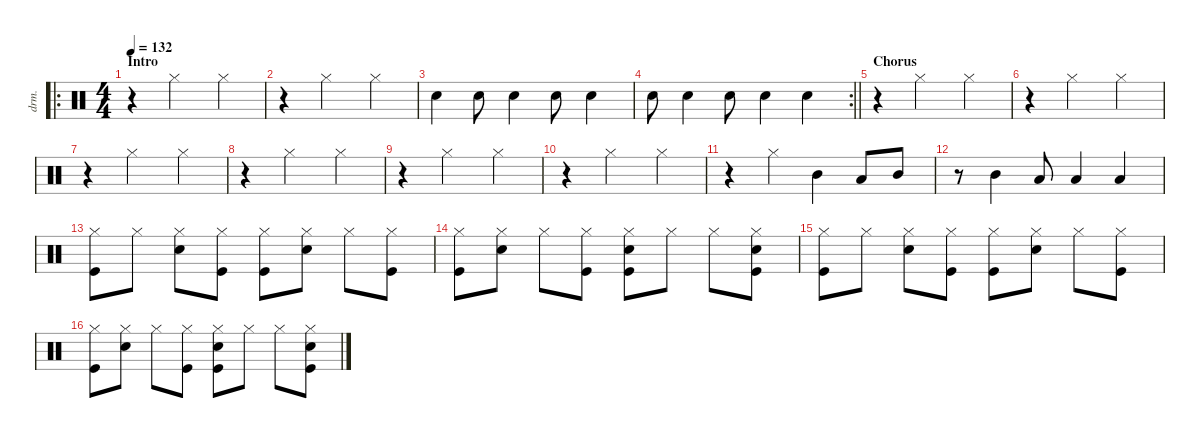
\defaultSystemsLayout 4
\hideDynamics
\bracketExtendMode nobrackets
\otherSystemsTrackNameOrientation horizontal
\track ("Drums" "drm.") {instrument percussion}
\staff {score}
\articulation defaults
\ro
\ts (4 4)
\beaming (8 2 2 2 2)
\section ("" "Intro")
\tempo 132
\clef neutral
\ks c
r.4{dy fff beam Down} "Hi-Hat (closed)".2{beam Down} "Hi-Hat (closed)".4{beam Down} |
r.4{beam Down} "Hi-Hat (closed)".2{beam Down} "Hi-Hat (closed)".4{beam Down} |
"Snare (hit) 2".4{dy mp beam Down} "Snare (hit) 2".8{beam Down} "Snare (hit) 2".4{beam Down} "Snare (hit) 2".8{beam Down} "Snare (hit) 2".4{beam Down} |
\rc 2
\barLineRight lightlight "Snare (hit) 2".8{beam Down} "Snare (hit) 2".4{beam Down} "Snare (hit) 2".8{beam Down} "Snare (hit) 2".4{beam Down} "Snare (hit) 2".4{beam Down}
|
\section ("" "Chorus")
r.4{beam Down} "Hi-Hat (closed)".2{dy fff beam Down} "Hi-Hat (closed)".4{beam Down} |
r.4{beam Down} "Hi-Hat (closed)".2{beam Down} "Hi-Hat (closed)".4{beam Down} |
r.4{beam Down} "Hi-Hat (closed)".2{beam Down} "Hi-Hat (closed)".4{beam Down} |
r.4{beam Down} "Hi-Hat (closed)".2{beam Down} "Hi-Hat (closed)".4{beam Down} |
r.4{beam Down} "Hi-Hat (closed)".2{beam Down} "Hi-Hat (closed)".4{beam Down} |
r.4{beam Down} "Hi-Hat (closed)".2{beam Down} "Hi-Hat (closed)".4{beam Down} |
r.4{beam Down} "Hi-Hat (closed)".4{beam Down} "Mid Tom (hit)".4{dy f beam Down} "Low Tom (hit)".8{beam Up} "Mid Tom (hit)".8{beam Up} |
r.8{beam Down} "Mid Tom (hit)".4{beam Down} "Low Tom (hit)".8{beam Up} "Low Tom (hit)".4{beam Up} "Low Tom (hit)".4{beam Up} |
("Hi-Hat (closed)" "Kick (hit)").8{beam Down} "Hi-Hat (closed)".8{beam Down} ("Hi-Hat (closed)" "Snare (hit) 2").8{beam Down} ("Hi-Hat (closed)" "Kick (hit)").8{beam Down} ("Hi-Hat (closed)" "Kick (hit)").8{beam Down} ("Hi-Hat (closed)" "Snare (hit) 2").8{beam Down} "Hi-Hat (closed)".8{beam Down} ("Hi-Hat (closed)" "Kick (hit)").8{beam Down} |
("Hi-Hat (closed)" "Kick (hit)").8{beam Down} ("Hi-Hat (closed)" "Snare (hit) 2").8{beam Down} "Hi-Hat (closed)".8{beam Down} ("Hi-Hat (closed)" "Kick (hit)").8{beam Down} ("Hi-Hat (closed)" "Snare (hit) 2" "Kick (hit)").8{beam Down} "Hi-Hat (closed)".8{beam Down} "Hi-Hat (closed)".8{beam Down} ("Hi-Hat (closed)" "Snare (hit) 2" "Kick (hit)").8{beam Down} |
("Hi-Hat (closed)" "Kick (hit)").8{beam Down} "Hi-Hat (closed)".8{beam Down} ("Hi-Hat (closed)" "Snare (hit) 2").8{beam Down} ("Hi-Hat (closed)" "Kick (hit)").8{beam Down} ("Hi-Hat (closed)" "Kick (hit)").8{beam Down} ("Hi-Hat (closed)" "Snare (hit) 2").8{beam Down} "Hi-Hat (closed)".8{beam Down} ("Hi-Hat (closed)" "Kick (hit)").8{beam Down} |
("Hi-Hat (closed)" "Kick (hit)").8{beam Down} ("Hi-Hat (closed)" "Snare (hit) 2").8{beam Down} "Hi-Hat (closed)".8{beam Down} ("Hi-Hat (closed)" "Kick (hit)").8{beam Down} ("Hi-Hat (closed)" "Snare (hit) 2" "Kick (hit)").8{beam Down} "Hi-Hat (closed)".8{beam Down} "Hi-Hat (closed)".8{beam Down} ("Hi-Hat (closed)" "Snare (hit) 2" "Kick (hit)").8{beam Down}
